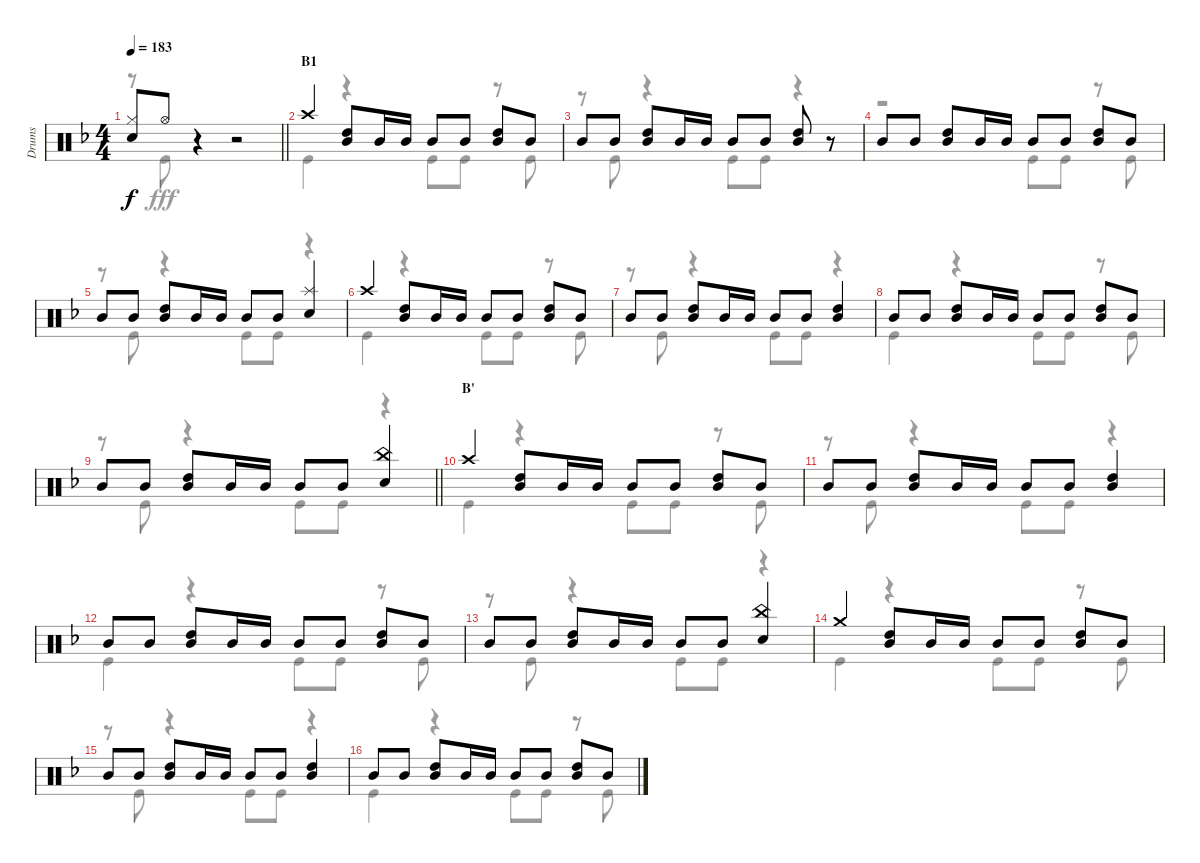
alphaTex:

\track ("Drums" "Drums") {instrument percussion}
\staff {score}
\articulation defaults
\voice
\ts (4 4)
\tempo 183
\clef neutral
\barLineRight lightlight
\ks f
("Hi-Hat (closed)" "Snare (hit) 2").8{dy f} "Hi-Hat (open)".8 r.4 r.2 |
\section ("" "B1")
"Crash high (hit)".4 ("High Tom (hit)" "Mid Tom (hit)").8 "Mid Tom (hit)".16 "Mid Tom (hit)".16 "Mid Tom (hit)".8 "Mid Tom (hit)".8 ("High Tom (hit)" "Mid Tom (hit)").8 "Mid Tom (hit)".8 |
"Mid Tom (hit)".8 "Mid Tom (hit)".8 ("High Tom (hit)" "Mid Tom (hit)").8 "Mid Tom (hit)".16 "Mid Tom (hit)".16 "Mid Tom (hit)".8 "Mid Tom (hit)".8 ("High Tom (hit)" "Mid Tom (hit)").8 r.8 |
"Mid Tom (hit)".8 "Mid Tom (hit)".8 ("High Tom (hit)" "Mid Tom (hit)").8 "Mid Tom (hit)".16 "Mid Tom (hit)".16 "Mid Tom (hit)".8 "Mid Tom (hit)".8 ("High Tom (hit)" "Mid Tom (hit)").8 "Mid Tom (hit)".8 |
"Mid Tom (hit)".8 "Mid Tom (hit)".8 ("High Tom (hit)" "Mid Tom (hit)").8 "Mid Tom (hit)".16 "Mid Tom (hit)".16 "Mid Tom (hit)".8 "Mid Tom (hit)".8 ("Splash (hit)" "Snare (hit) 2").4 |
"Crash high (hit)".4 ("High Tom (hit)" "Mid Tom (hit)").8 "Mid Tom (hit)".16 "Mid Tom (hit)".16 "Mid Tom (hit)".8 "Mid Tom (hit)".8 ("High Tom (hit)" "Mid Tom (hit)").8 "Mid Tom (hit)".8 |
"Mid Tom (hit)".8 "Mid Tom (hit)".8 ("High Tom (hit)" "Mid Tom (hit)").8 "Mid Tom (hit)".16 "Mid Tom (hit)".16 "Mid Tom (hit)".8 "Mid Tom (hit)".8 ("High Tom (hit)" "Mid Tom (hit)").4 |
"Mid Tom (hit)".8 "Mid Tom (hit)".8 ("High Tom (hit)" "Mid Tom (hit)").8 "Mid Tom (hit)".16 "Mid Tom (hit)".16 "Mid Tom (hit)".8 "Mid Tom (hit)".8 ("High Tom (hit)" "Mid Tom (hit)").8 "Mid Tom (hit)".8 |
\barLineRight lightlight "Mid Tom (hit)".8 "Mid Tom (hit)".8
("High Tom (hit)" "Mid Tom (hit)").8 "Mid Tom (hit)".16 "Mid Tom (hit)".16 "Mid Tom (hit)".8 "Mid Tom (hit)".8 ("China (hit)" "Snare (hit) 2").4 |
\section ("" "B'")
"Crash high (hit)".4 ("High Tom (hit)" "Mid Tom (hit)").8 "Mid Tom (hit)".16 "Mid Tom (hit)".16 "Mid Tom (hit)".8 "Mid Tom (hit)".8 ("High Tom (hit)" "Mid Tom (hit)").8 "Mid Tom (hit)".8 |
"Mid Tom (hit)".8 "Mid Tom (hit)".8 ("High Tom (hit)" "Mid Tom (hit)").8 "Mid Tom (hit)".16 "Mid Tom (hit)".16 "Mid Tom (hit)".8 "Mid Tom (hit)".8 ("High Tom (hit)" "Mid Tom (hit)").4 |
"Mid Tom (hit)".8 "Mid Tom (hit)".8 ("High Tom (hit)" "Mid Tom (hit)").8 "Mid Tom (hit)".16 "Mid Tom (hit)".16 "Mid Tom (hit)".8 "Mid Tom (hit)".8 ("High Tom (hit)" "Mid Tom (hit)").8 "Mid Tom (hit)".8 |
"Mid Tom (hit)".8 "Mid Tom (hit)".8 ("High Tom (hit)" "Mid Tom (hit)").8 "Mid Tom (hit)".16 "Mid Tom (hit)".16 "Mid Tom (hit)".8 "Mid Tom (hit)".8 ("China (hit)" "Snare (hit) 2").4 |
"Crash medium (hit)".4 ("Mid Tom (hit)" "High Tom (hit)").8 "Mid Tom (hit)".16 "Mid Tom (hit)".16 "Mid Tom (hit)".8 "Mid Tom (hit)".8 ("High Tom (hit)" "Mid Tom (hit)").8 "Mid Tom (hit)".8 |
"Mid Tom (hit)".8 "Mid Tom (hit)".8 ("High Tom (hit)" "Mid Tom (hit)").8 "Mid Tom (hit)".16 "Mid Tom (hit)".16 "Mid Tom (hit)".8 "Mid Tom (hit)".8 ("High Tom (hit)" "Mid Tom (hit)").4 |
"Mid Tom (hit)".8 "Mid Tom (hit)".8 ("High Tom (hit)" "Mid Tom (hit)").8 "Mid Tom (hit)".16 "Mid Tom (hit)".16 "Mid Tom (hit)".8 "Mid Tom (hit)".8 ("High Tom (hit)" "Mid Tom (hit)").8 "Mid Tom (hit)".8
\voice
\clef neutral
\ottava regular
\simile none
\barLineRight lightlight
\ks f
r.8{dy fff} "Kick (hit)".8 r.4 r.2 |
"Kick (hit)".4 r.4 "Kick (hit)".8 "Kick (hit)".8 r.8 "Kick (hit)".8 |
r.8 "Kick (hit)".8 r.4 "Kick (hit)".8 "Kick (hit)".8 r.4 |
r.2 "Kick (hit)".8 "Kick (hit)".8 r.8 "Kick (hit)".8 |
r.8 "Kick (hit)".8 r.4 "Kick (hit)".8 "Kick (hit)".8 r.4 |
"Kick (hit)".4 r.4 "Kick (hit)".8 "Kick (hit)".8 r.8 "Kick (hit)".8 |
r.8 "Kick (hit)".8 r.4 "Kick (hit)".8 "Kick (hit)".8 r.4 |
"Kick (hit)".4 r.4 "Kick (hit)".8 "Kick (hit)".8 r.8 "Kick (hit)".8 |
\barLineRight lightlight
r.8 "Kick (hit)".8 r.4 "Kick (hit)".8 "Kick (hit)".8 r.4 |
"Kick (hit)".4 r.4 "Kick (hit)".8 "Kick (hit)".8 r.8 "Kick (hit)".8 |
r.8 "Kick (hit)".8 r.4 "Kick (hit)".8 "Kick (hit)".8 r.4 |
"Kick (hit)".4 r.4 "Kick (hit)".8 "Kick (hit)".8 r.8 "Kick (hit)".8 |
r.8 "Kick (hit)".8 r.4 "Kick (hit)".8 "Kick (hit)".8 r.4 |
"Kick (hit)".4 r.4 "Kick (hit)".8 "Kick (hit)".8 r.8 "Kick (hit)".8 |
r.8 "Kick (hit)".8 r.4 "Kick (hit)".8 "Kick (hit)".8 r.4 |
"Kick (hit)".4 r.4 "Kick (hit)".8 "Kick (hit)".8 r.8 "Kick (hit)".8
